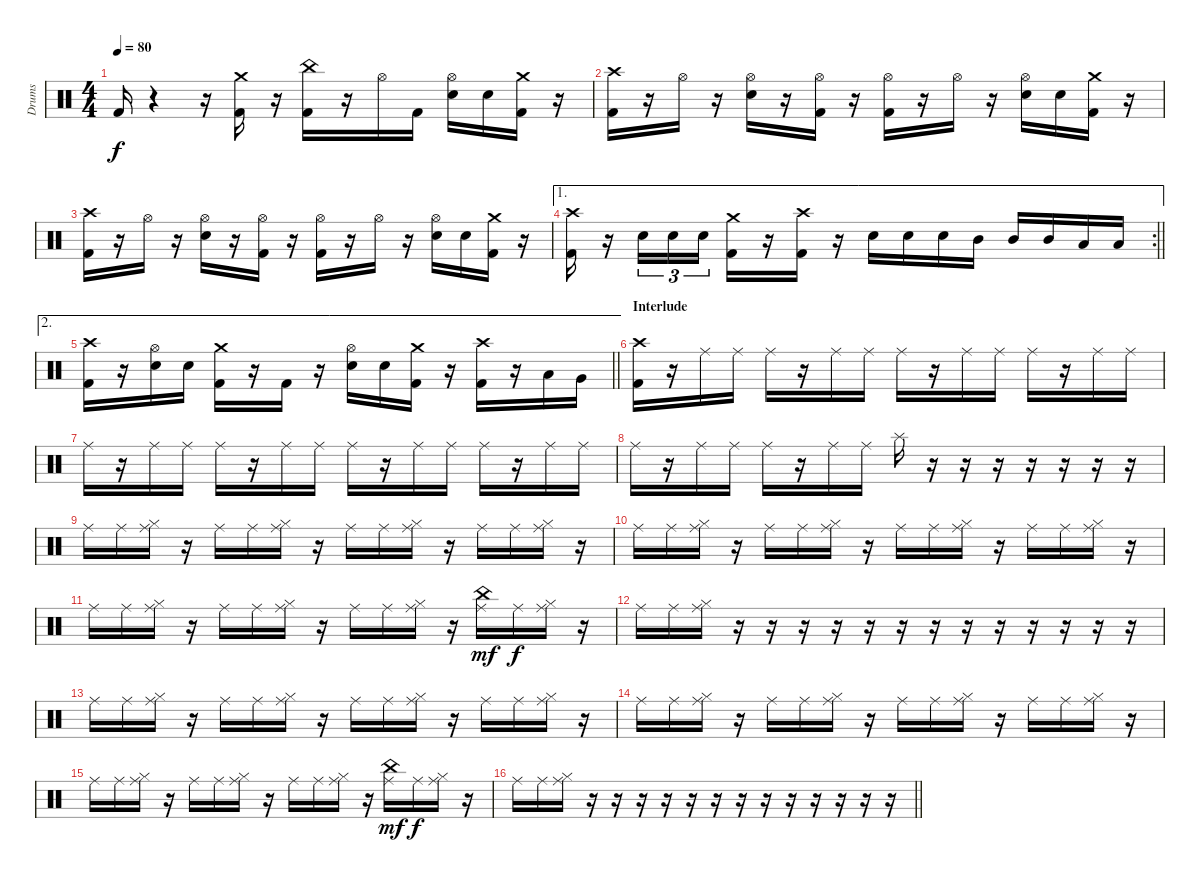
\track ("Drums" "Drums") {instrument percussion}
\staff {score}
\articulation defaults
\ts (4 4)
\tempo 80
\clef neutral
\ks c "Kick (hit) 2".16{dy f}
r.4 r.16 ("Crash medium (hit)" "Kick (hit) 2").16 r.16 ("China (hit)" "Kick (hit) 2").16 r.16 "Hi-Hat (open)".16 "Kick (hit) 2".16 ("Hi-Hat (open)" "Electric Snare (hit)").16 "Electric Snare (hit)".16 ("Crash medium (hit)" "Kick (hit) 2").16 r.16 |
("Crash high (hit)" "Kick (hit) 2").16{volume 13} r.16 "Hi-Hat (open)".16 r.16 ("Hi-Hat (open)" "Electric Snare (hit)").16 r.16 ("Hi-Hat (open)" "Kick (hit) 2").16 r.16 ("Hi-Hat (open)" "Kick (hit) 2").16 r.16 "Hi-Hat (open)".16 r.16 ("Hi-Hat (open)" "Electric Snare (hit)").16 "Electric Snare (hit)".16 ("Crash medium (hit)" "Kick (hit) 2").16 r.16 |
("Crash high (hit)" "Kick (hit) 2").16{volume 13} r.16 "Hi-Hat (open)".16 r.16 ("Hi-Hat (open)" "Electric Snare (hit)").16 r.16 ("Hi-Hat (open)" "Kick (hit) 2").16 r.16 ("Hi-Hat (open)" "Kick (hit) 2").16 r.16 "Hi-Hat (open)".16 r.16 ("Hi-Hat (open)" "Electric Snare (hit)").16 "Electric Snare (hit)".16 ("Crash medium (hit)" "Kick (hit) 2").16 r.16 |
\ae 1
\rc 2
\barLineRight lightlight
("Crash high (hit)" "Kick (hit) 2").16 r.16 "Electric Snare (hit)".16{tu (3 2)} "Electric Snare (hit)".16{tu (3 2)} "Electric Snare (hit)".16{tu (3 2)} ("Crash medium (hit)" "Kick (hit) 2").16 r.16 ("Crash high (hit)" "Kick (hit) 2").16 r.16 "Electric Snare (hit)".16 "Electric Snare (hit)".16 "Electric Snare (hit)".16 "Mid Tom (hit)".16 "Mid Tom (hit)".16 "Mid Tom (hit)".16 "Low Tom (hit)".16 "Low Tom (hit)".16 |
\ae 2
\barLineRight lightlight
("Crash high (hit)" "Kick (hit) 2").16 r.16 ("Hi-Hat (open)" "Electric Snare (hit)").16 "Electric Snare (hit)".16 ("Crash medium (hit)" "Kick (hit) 2").16 r.16 "Kick (hit) 2".16 r.16 ("Hi-Hat (open)" "Electric Snare (hit)").16 "Electric Snare (hit)".16 ("Crash medium (hit)" "Kick (hit) 2").16 r.16 ("Crash high (hit)" "Kick (hit) 2").16 r.16 "Low Tom (hit)".16 "Very Low Tom (hit)".16 |
\section ("" "Interlude")
("Crash high (hit)" "Kick (hit) 2").16{volume 10} r.16 "Ride (middle)".16{volume 8} "Ride (middle)".16 "Ride (middle)".16 r.16 "Ride (middle)".16 "Ride (middle)".16 "Ride (middle)".16 r.16 "Ride (middle)".16 "Ride (middle)".16 "Ride (middle)".16 r.16 "Ride (middle)".16 "Ride (middle)".16 |
"Ride (middle)".16 r.16 "Ride (middle)".16 "Ride (middle)".16 "Ride (middle)".16 r.16 "Ride (middle)".16 "Ride (middle)".16 "Ride (middle)".16 r.16 "Ride (middle)".16 "Ride (middle)".16 "Ride (middle)".16 r.16 "Ride (middle)".16 "Ride (middle)".16 |
"Ride (middle)".16 r.16 "Ride (middle)".16 "Ride (middle)".16 "Ride (middle)".16 r.16 "Ride (middle)".16 "Ride (middle)".16 "Splash (hit)".16 r.16 r.16 r.16 r.16 r.16 r.16 r.16 |
"Ride (middle)".16 "Ride (middle)".16 ("Ride (middle)" "Hi-Hat (closed)").16 r.16 "Ride (middle)".16 "Ride (middle)".16 ("Ride (middle)" "Hi-Hat (closed)").16 r.16 "Ride (middle)".16 "Ride (middle)".16 ("Ride (middle)" "Hi-Hat (closed)").16 r.16 "Ride (middle)".16 "Ride (middle)".16 ("Ride (middle)" "Hi-Hat (closed)").16 r.16 |
"Ride (middle)".16 "Ride (middle)".16 ("Ride (middle)" "Hi-Hat (closed)").16 r.16 "Ride (middle)".16 "Ride (middle)".16 ("Ride (middle)" "Hi-Hat (closed)").16 r.16 "Ride (middle)".16 "Ride (middle)".16 ("Ride (middle)" "Hi-Hat (closed)").16 r.16 "Ride (middle)".16 "Ride (middle)".16 ("Ride (middle)" "Hi-Hat (closed)").16 r.16 |
"Ride (middle)".16 "Ride (middle)".16 ("Ride (middle)" "Hi-Hat (closed)").16 r.16 "Ride (middle)".16 "Ride (middle)".16 ("Ride (middle)" "Hi-Hat (closed)").16 r.16 "Ride (middle)".16 "Ride (middle)".16 ("Ride (middle)" "Hi-Hat (closed)").16 r.16 ("Ride (middle)" "China (hit)").16{dy mf} "Ride (middle)".16{dy f} ("Ride (middle)" "Hi-Hat (closed)").16 r.16 |
"Ride (middle)".16 "Ride (middle)".16 ("Ride (middle)" "Hi-Hat (closed)").16 r.16 r.16 r.16 r.16 r.16 r.16 r.16 r.16 r.16 r.16 r.16 r.16 r.16 |
"Ride (middle)".16 "Ride (middle)".16 ("Ride (middle)" "Hi-Hat (closed)").16 r.16 "Ride (middle)".16 "Ride (middle)".16 ("Ride (middle)" "Hi-Hat (closed)").16 r.16 "Ride (middle)".16 "Ride (middle)".16 ("Ride (middle)" "Hi-Hat (closed)").16 r.16 "Ride (middle)".16 "Ride (middle)".16 ("Ride (middle)" "Hi-Hat (closed)").16 r.16 |
"Ride (middle)".16 "Ride (middle)".16 ("Ride (middle)" "Hi-Hat (closed)").16 r.16 "Ride (middle)".16 "Ride (middle)".16 ("Ride (middle)" "Hi-Hat (closed)").16 r.16 "Ride (middle)".16 "Ride (middle)".16 ("Ride (middle)" "Hi-Hat (closed)").16 r.16 "Ride (middle)".16 "Ride (middle)".16 ("Ride (middle)" "Hi-Hat (closed)").16 r.16 |
"Ride (middle)".16 "Ride (middle)".16 ("Ride (middle)" "Hi-Hat (closed)").16 r.16 "Ride (middle)".16 "Ride (middle)".16 ("Ride (middle)" "Hi-Hat (closed)").16 r.16 "Ride (middle)".16 "Ride (middle)".16 ("Ride (middle)" "Hi-Hat (closed)").16 r.16 ("Ride (middle)" "China (hit)").16{dy mf} "Ride (middle)".16{dy f} ("Ride (middle)" "Hi-Hat (closed)").16 r.16 |
\barLineRight lightlight "Ride (middle)".16 "Ride (middle)".16
("Ride (middle)" "Hi-Hat (closed)").16 r.16 r.16 r.16 r.16 r.16 r.16 r.16 r.16 r.16 r.16 r.16 r.16 r.16
